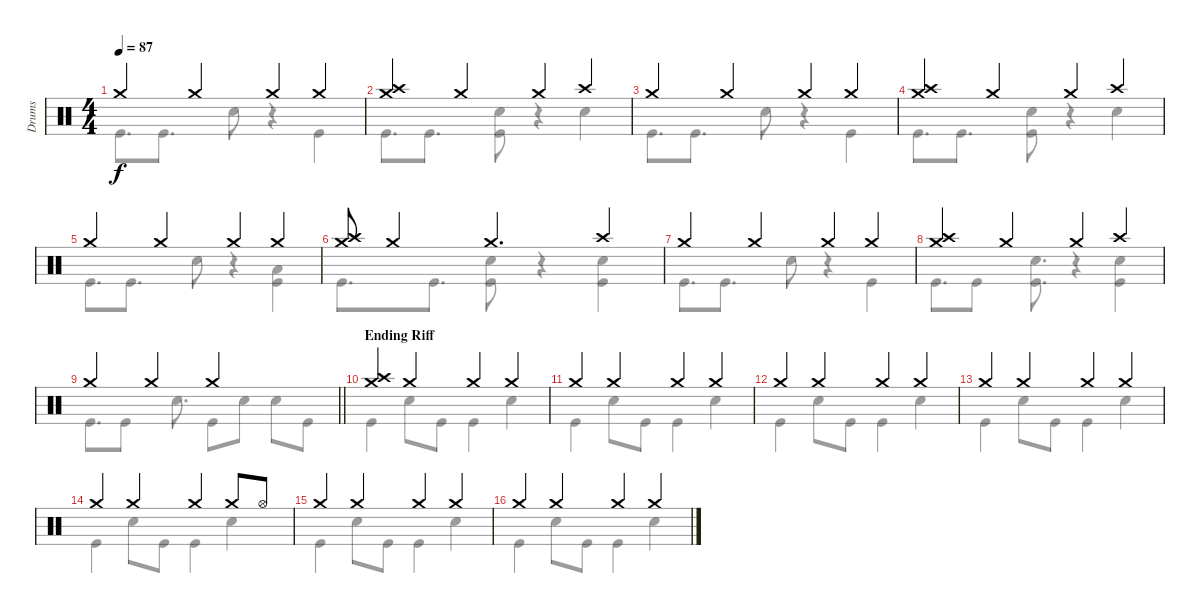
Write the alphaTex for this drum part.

\track ("Drums" "Drums") {instrument percussion}
\staff {score}
\articulation defaults
\voice
\ts (4 4)
\tempo 87
\clef neutral
\ks c "Crash medium (hit)".4{dy f} "Crash medium (hit)".4 "Crash medium (hit)".4 "Crash medium (hit)".4
|
("Crash medium (hit)" "Crash high (hit)").4 "Crash medium (hit)".4 "Crash medium (hit)".4 "Crash high (hit)".4 |
"Crash medium (hit)".4 "Crash medium (hit)".4 "Crash medium (hit)".4 "Crash medium (hit)".4 |
("Crash medium (hit)" "Crash high (hit)").4 "Crash medium (hit)".4 "Crash medium (hit)".4 "Crash high (hit)".4 |
"Crash medium (hit)".4 "Crash medium (hit)".4 "Crash medium (hit)".4 "Crash medium (hit)".4 |
("Crash medium (hit)" "Crash high (hit)").8 "Crash medium (hit)".4 "Crash medium (hit)".4{d} "Crash high (hit)".4 |
"Crash medium (hit)".4 "Crash medium (hit)".4 "Crash medium (hit)".4 "Crash medium (hit)".4 |
("Crash medium (hit)" "Crash high (hit)").4 "Crash medium (hit)".4 "Crash medium (hit)".4 "Crash high (hit)".4 |
\barLineRight lightlight "Crash medium (hit)".4 "Crash medium (hit)".4 "Crash medium (hit)".2
|
\section ("" "Ending Riff")
("Crash medium (hit)" "Crash high (hit)").4 "Crash medium (hit)".4 "Crash medium (hit)".4 "Crash medium (hit)".4 |
"Crash medium (hit)".4 "Crash medium (hit)".4 "Crash medium (hit)".4 "Crash medium (hit)".4 |
"Crash medium (hit)".4 "Crash medium (hit)".4 "Crash medium (hit)".4 "Crash medium (hit)".4 |
"Crash medium (hit)".4 "Crash medium (hit)".4 "Crash medium (hit)".4 "Crash medium (hit)".4 |
"Crash medium (hit)".4 "Crash medium (hit)".4 "Crash medium (hit)".4 "Crash medium (hit)".8 "Hi-Hat (open)".8 |
"Crash medium (hit)".4 "Crash medium (hit)".4 "Crash medium (hit)".4 "Crash medium (hit)".4 |
"Crash medium (hit)".4 "Crash medium (hit)".4 "Crash medium (hit)".4 "Crash medium (hit)".4
\voice
\clef neutral
\ottava regular
\simile none
\ks c "Kick (hit)".8{d dy f} "Kick (hit)".8{d} "Snare (hit) 2".8
r.4 "Kick (hit)".4 |
"Kick (hit)".8{d} "Kick (hit)".8{d} ("Snare (hit) 2" "Kick (hit)").8 r.4 "Snare (hit) 2".4 |
"Kick (hit)".8{d} "Kick (hit)".8{d} "Snare (hit) 2".8 r.4 "Kick (hit)".4 |
"Kick (hit)".8{d} "Kick (hit)".8{d} ("Snare (hit) 2" "Kick (hit)").8 r.4 "Snare (hit) 2".4 |
"Kick (hit)".8{d} "Kick (hit)".8{d} "Snare (hit) 2".8 r.4 ("Low Floor Tom (hit)" "Kick (hit)").4 |
"Kick (hit)".8{d} "Kick (hit)".8{d} ("Snare (hit) 2" "Kick (hit)").8 r.4 ("Snare (hit) 2" "Kick (hit)").4 |
"Kick (hit)".8{d} "Kick (hit)".8{d} "Snare (hit) 2".8 r.4 "Kick (hit)".4 |
"Kick (hit)".8{d} "Kick (hit)".8 ("Snare (hit) 2" "Kick (hit)").8{d} r.4 ("Snare (hit) 2" "Kick (hit)").4 |
\barLineRight lightlight "Kick (hit)".8{d} "Kick (hit)".8 "Snare (hit) 2".8{d} "Kick (hit)".8 "Snare (hit) 2".8 "Snare (hit) 2".8 "Kick (hit)".8
|
"Kick (hit)".4 "Snare (hit) 2".8 "Kick (hit)".8 "Kick (hit)".4 "Snare (hit) 2".4 |
"Kick (hit)".4 "Snare (hit) 2".8 "Kick (hit)".8 "Kick (hit)".4 "Snare (hit) 2".4 |
"Kick (hit)".4 "Snare (hit) 2".8 "Kick (hit)".8 "Kick (hit)".4 "Snare (hit) 2".4 |
"Kick (hit)".4 "Snare (hit) 2".8 "Kick (hit)".8 "Kick (hit)".4 "Snare (hit) 2".4 |
"Kick (hit)".4 "Snare (hit) 2".8 "Kick (hit)".8 "Kick (hit)".4 "Snare (hit) 2".4 |
"Kick (hit)".4 "Snare (hit) 2".8 "Kick (hit)".8 "Kick (hit)".4 "Snare (hit) 2".4 |
"Kick (hit)".4 "Snare (hit) 2".8 "Kick (hit)".8 "Kick (hit)".4 "Snare (hit) 2".4
